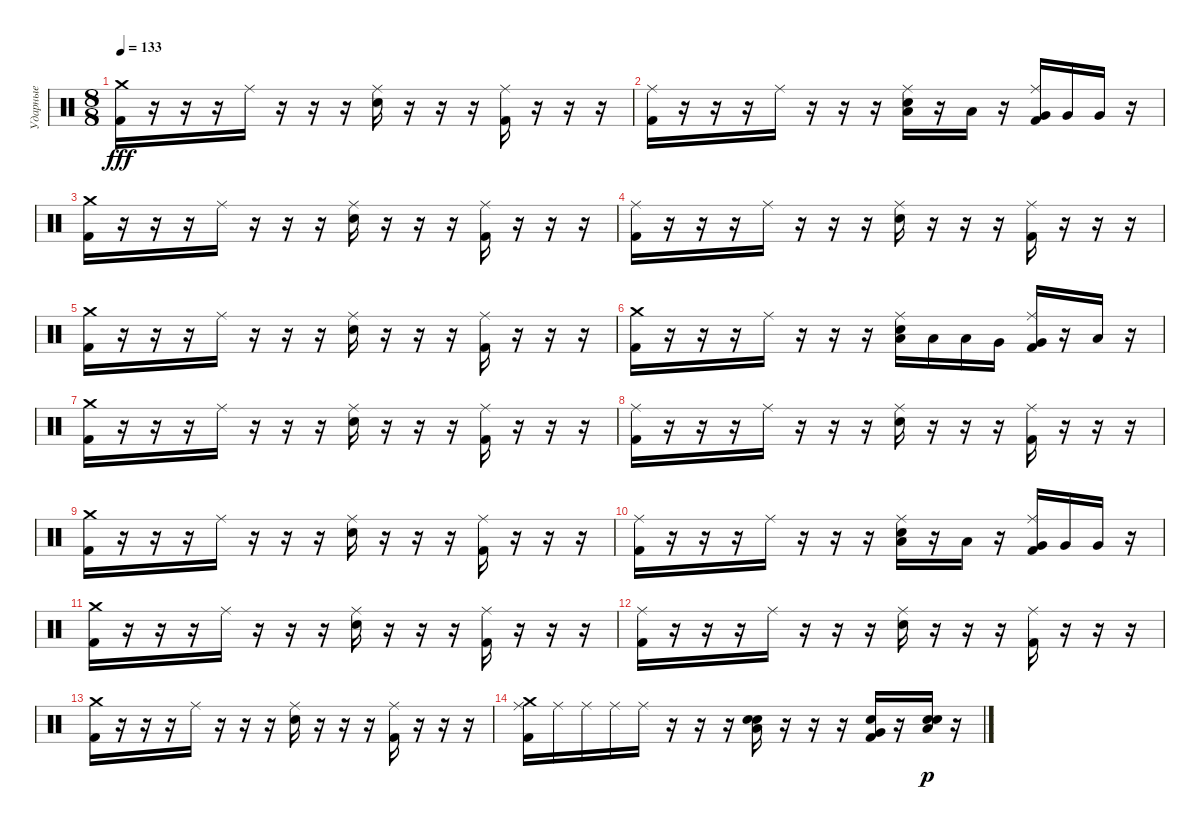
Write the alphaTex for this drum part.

\track ("Ударные" "Ударные") {instrument percussion}
\staff {score}
\articulation defaults
\ts (8 8)
\tempo 133
\clef neutral
\ks c
("Crash medium (hit)" "Kick (hit) 2").16{dy fff} r.16 r.16 r.16 "Ride (middle)".16 r.16 r.16 r.16 ("Ride (middle)" "Snare (hit) 2").16 r.16 r.16 r.16 ("Ride (middle)" "Kick (hit) 2").16 r.16 r.16 r.16 |
("Ride (middle)" "Kick (hit) 2").16 r.16 r.16 r.16 "Ride (middle)".16 r.16 r.16 r.16 ("Ride (middle)" "Low Tom (hit)" "Snare (hit) 2").16 r.16 "Low Tom (hit)".16 r.16 ("Ride (middle)" "Very Low Tom (hit)" "Kick (hit) 2").16 "Very Low Tom (hit)".16 "Very Low Tom (hit)".16 r.16 |
("Crash medium (hit)" "Kick (hit) 2").16 r.16 r.16 r.16 "Ride (middle)".16 r.16 r.16 r.16 ("Ride (middle)" "Snare (hit) 2").16 r.16 r.16 r.16 ("Ride (middle)" "Kick (hit) 2").16 r.16 r.16 r.16 |
("Ride (middle)" "Kick (hit) 2").16 r.16 r.16 r.16 "Ride (middle)".16 r.16 r.16 r.16 ("Ride (middle)" "Snare (hit) 2").16 r.16 r.16 r.16 ("Ride (middle)" "Kick (hit) 2").16 r.16 r.16 r.16 |
("Crash medium (hit)" "Kick (hit) 2").16 r.16 r.16 r.16 "Ride (middle)".16 r.16 r.16 r.16 ("Ride (middle)" "Snare (hit) 2").16 r.16 r.16 r.16 ("Ride (middle)" "Kick (hit) 2").16 r.16 r.16 r.16 |
("Crash medium (hit)" "Kick (hit) 2").16 r.16 r.16 r.16 "Ride (middle)".16 r.16 r.16 r.16 ("Ride (middle)" "Low Tom (hit)" "Snare (hit) 2").16 "Low Tom (hit)".16 "Low Tom (hit)".16 "Very Low Tom (hit)".16 ("Ride (middle)" "Very Low Tom (hit)" "Kick (hit) 2").16 r.16 "Low Floor Tom (hit)".16 r.16 |
("Crash medium (hit)" "Kick (hit) 2").16 r.16 r.16 r.16 "Ride (middle)".16 r.16 r.16 r.16 ("Ride (middle)" "Snare (hit) 2").16 r.16 r.16 r.16 ("Ride (middle)" "Kick (hit) 2").16 r.16 r.16 r.16 |
("Ride (middle)" "Kick (hit) 2").16 r.16 r.16 r.16 "Ride (middle)".16 r.16 r.16 r.16 ("Ride (middle)" "Snare (hit) 2").16 r.16 r.16 r.16 ("Ride (middle)" "Kick (hit) 2").16 r.16 r.16 r.16 |
("Crash medium (hit)" "Kick (hit) 2").16 r.16 r.16 r.16 "Ride (middle)".16 r.16 r.16 r.16 ("Ride (middle)" "Snare (hit) 2").16 r.16 r.16 r.16 ("Ride (middle)" "Kick (hit) 2").16 r.16 r.16 r.16 |
("Ride (middle)" "Kick (hit) 2").16 r.16 r.16 r.16 "Ride (middle)".16 r.16 r.16 r.16 ("Ride (middle)" "Low Tom (hit)" "Snare (hit) 2").16 r.16 "Low Tom (hit)".16 r.16 ("Ride (middle)" "Very Low Tom (hit)" "Kick (hit) 2").16 "Very Low Tom (hit)".16 "Very Low Tom (hit)".16 r.16 |
("Crash medium (hit)" "Kick (hit) 2").16 r.16 r.16 r.16 "Ride (middle)".16 r.16 r.16 r.16 ("Ride (middle)" "Snare (hit) 2").16 r.16 r.16 r.16 ("Ride (middle)" "Kick (hit) 2").16 r.16 r.16 r.16 |
("Ride (middle)" "Kick (hit) 2").16 r.16 r.16 r.16 "Ride (middle)".16 r.16 r.16 r.16 ("Ride (middle)" "Snare (hit) 2").16 r.16 r.16 r.16 ("Ride (middle)" "Kick (hit) 2").16 r.16 r.16 r.16 |
("Crash medium (hit)" "Kick (hit) 2").16 r.16 r.16 r.16 "Ride (middle)".16 r.16 r.16 r.16 ("Ride (middle)" "Snare (hit) 2").16 r.16 r.16 r.16 ("Ride (middle)" "Kick (hit) 2").16 r.16 r.16 r.16 |
("Ride (middle)" "Crash medium (hit)" "Kick (hit) 2").16 "Ride (middle)".16 "Ride (middle)".16 "Ride (middle)".16 "Ride (middle)".16 r.16 r.16 r.16 ("Electric Snare (hit)" "Low Tom (hit)" "Snare (hit) 2").16 r.16 r.16 r.16 ("Electric Snare (hit)" "Very Low Tom (hit)" "Kick (hit) 2").16 r.16 ("Electric Snare (hit)" "Low Floor Tom (hit)" "Snare (hit) 2").16{dy p} r.16
